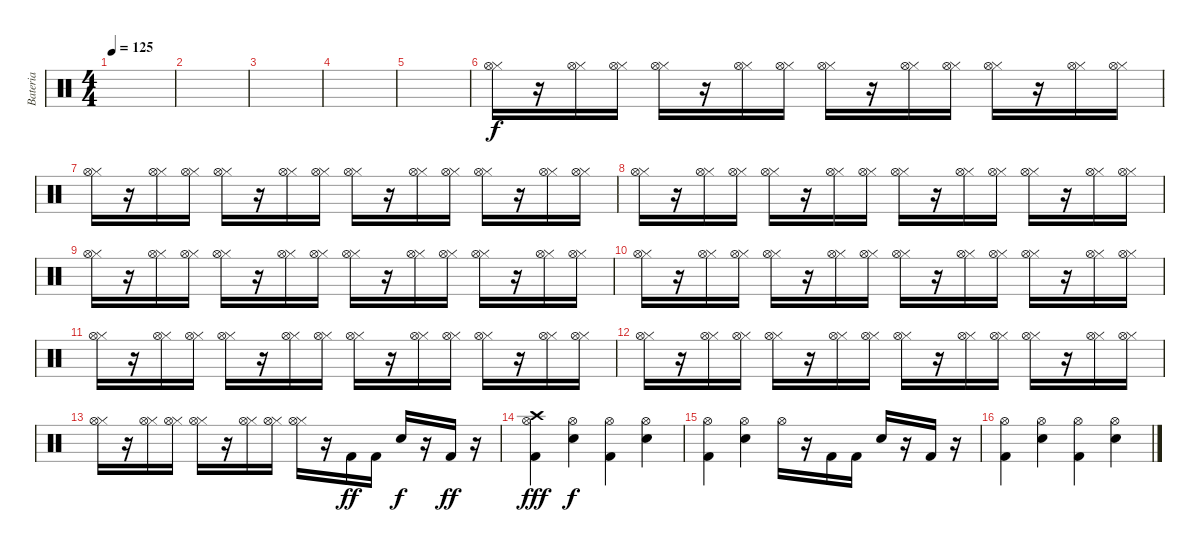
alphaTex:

\track ("Bateria" "Bateria") {instrument percussion}
\staff {score}
\articulation defaults
\ts (4 4)
\tempo 125
\clef neutral
\ks c
|
|
|
|
|
("Hi-Hat (closed)" "Hi-Hat (open)").16 r.16 ("Hi-Hat (closed)" "Hi-Hat (open)").16 ("Hi-Hat (closed)" "Hi-Hat (open)").16 ("Hi-Hat (closed)" "Hi-Hat (open)").16 r.16 ("Hi-Hat (closed)" "Hi-Hat (open)").16 ("Hi-Hat (closed)" "Hi-Hat (open)").16 ("Hi-Hat (closed)" "Hi-Hat (open)").16 r.16 ("Hi-Hat (closed)" "Hi-Hat (open)").16 ("Hi-Hat (closed)" "Hi-Hat (open)").16 ("Hi-Hat (closed)" "Hi-Hat (open)").16 r.16 ("Hi-Hat (closed)" "Hi-Hat (open)").16 ("Hi-Hat (closed)" "Hi-Hat (open)").16 |
("Hi-Hat (closed)" "Hi-Hat (open)").16 r.16 ("Hi-Hat (closed)" "Hi-Hat (open)").16 ("Hi-Hat (closed)" "Hi-Hat (open)").16 ("Hi-Hat (closed)" "Hi-Hat (open)").16 r.16 ("Hi-Hat (closed)" "Hi-Hat (open)").16 ("Hi-Hat (closed)" "Hi-Hat (open)").16 ("Hi-Hat (closed)" "Hi-Hat (open)").16 r.16 ("Hi-Hat (closed)" "Hi-Hat (open)").16 ("Hi-Hat (closed)" "Hi-Hat (open)").16 ("Hi-Hat (closed)" "Hi-Hat (open)").16 r.16 ("Hi-Hat (closed)" "Hi-Hat (open)").16 ("Hi-Hat (closed)" "Hi-Hat (open)").16 |
("Hi-Hat (closed)" "Hi-Hat (open)").16 r.16 ("Hi-Hat (closed)" "Hi-Hat (open)").16 ("Hi-Hat (closed)" "Hi-Hat (open)").16 ("Hi-Hat (closed)" "Hi-Hat (open)").16 r.16 ("Hi-Hat (closed)" "Hi-Hat (open)").16 ("Hi-Hat (closed)" "Hi-Hat (open)").16 ("Hi-Hat (closed)" "Hi-Hat (open)").16 r.16 ("Hi-Hat (closed)" "Hi-Hat (open)").16 ("Hi-Hat (closed)" "Hi-Hat (open)").16 ("Hi-Hat (closed)" "Hi-Hat (open)").16 r.16 ("Hi-Hat (closed)" "Hi-Hat (open)").16 ("Hi-Hat (closed)" "Hi-Hat (open)").16 |
("Hi-Hat (closed)" "Hi-Hat (open)").16 r.16 ("Hi-Hat (closed)" "Hi-Hat (open)").16 ("Hi-Hat (closed)" "Hi-Hat (open)").16 ("Hi-Hat (closed)" "Hi-Hat (open)").16 r.16 ("Hi-Hat (closed)" "Hi-Hat (open)").16 ("Hi-Hat (closed)" "Hi-Hat (open)").16 ("Hi-Hat (closed)" "Hi-Hat (open)").16 r.16 ("Hi-Hat (closed)" "Hi-Hat (open)").16 ("Hi-Hat (closed)" "Hi-Hat (open)").16 ("Hi-Hat (closed)" "Hi-Hat (open)").16 r.16 ("Hi-Hat (closed)" "Hi-Hat (open)").16 ("Hi-Hat (closed)" "Hi-Hat (open)").16 |
("Hi-Hat (closed)" "Hi-Hat (open)").16 r.16 ("Hi-Hat (closed)" "Hi-Hat (open)").16 ("Hi-Hat (closed)" "Hi-Hat (open)").16 ("Hi-Hat (closed)" "Hi-Hat (open)").16 r.16 ("Hi-Hat (closed)" "Hi-Hat (open)").16 ("Hi-Hat (closed)" "Hi-Hat (open)").16 ("Hi-Hat (closed)" "Hi-Hat (open)").16 r.16 ("Hi-Hat (closed)" "Hi-Hat (open)").16 ("Hi-Hat (closed)" "Hi-Hat (open)").16 ("Hi-Hat (closed)" "Hi-Hat (open)").16 r.16 ("Hi-Hat (closed)" "Hi-Hat (open)").16 ("Hi-Hat (closed)" "Hi-Hat (open)").16 |
("Hi-Hat (closed)" "Hi-Hat (open)").16 r.16 ("Hi-Hat (closed)" "Hi-Hat (open)").16 ("Hi-Hat (closed)" "Hi-Hat (open)").16 ("Hi-Hat (closed)" "Hi-Hat (open)").16 r.16 ("Hi-Hat (closed)" "Hi-Hat (open)").16 ("Hi-Hat (closed)" "Hi-Hat (open)").16 ("Hi-Hat (closed)" "Hi-Hat (open)").16 r.16 ("Hi-Hat (closed)" "Hi-Hat (open)").16 ("Hi-Hat (closed)" "Hi-Hat (open)").16 ("Hi-Hat (closed)" "Hi-Hat (open)").16 r.16 ("Hi-Hat (closed)" "Hi-Hat (open)").16 ("Hi-Hat (closed)" "Hi-Hat (open)").16 |
("Hi-Hat (closed)" "Hi-Hat (open)").16 r.16 ("Hi-Hat (closed)" "Hi-Hat (open)").16 ("Hi-Hat (closed)" "Hi-Hat (open)").16 ("Hi-Hat (closed)" "Hi-Hat (open)").16 r.16 ("Hi-Hat (closed)" "Hi-Hat (open)").16 ("Hi-Hat (closed)" "Hi-Hat (open)").16 ("Hi-Hat (closed)" "Hi-Hat (open)").16 r.16 ("Hi-Hat (closed)" "Hi-Hat (open)").16 ("Hi-Hat (closed)" "Hi-Hat (open)").16 ("Hi-Hat (closed)" "Hi-Hat (open)").16 r.16 ("Hi-Hat (closed)" "Hi-Hat (open)").16 ("Hi-Hat (closed)" "Hi-Hat (open)").16 |
("Hi-Hat (closed)" "Hi-Hat (open)").16 r.16 ("Hi-Hat (closed)" "Hi-Hat (open)").16 ("Hi-Hat (closed)" "Hi-Hat (open)").16 ("Hi-Hat (closed)" "Hi-Hat (open)").16 r.16 ("Hi-Hat (closed)" "Hi-Hat (open)").16 ("Hi-Hat (closed)" "Hi-Hat (open)").16 ("Hi-Hat (closed)" "Hi-Hat (open)").16 r.16 "Kick (hit) 2".16{dy ff} "Kick (hit) 2".16 "Snare (hit) 2".16{dy f} r.16 "Kick (hit) 2".16{dy ff} r.16 |
("Hi-Hat (open)" "Kick (hit) 2" "Crash high (hit)").4{dy fff} ("Hi-Hat (open)" "Snare (hit) 2").4{dy f} ("Hi-Hat (open)" "Kick (hit) 2").4 ("Hi-Hat (open)" "Snare (hit) 2").4 |
("Hi-Hat (open)" "Kick (hit) 2").4 ("Hi-Hat (open)" "Snare (hit) 2").4 "Hi-Hat (open)".16 r.16 "Kick (hit) 2".16 "Kick (hit) 2".16 "Snare (hit) 2".16 r.16 "Kick (hit) 2".16 r.16 |
("Hi-Hat (open)" "Kick (hit) 2").4 ("Hi-Hat (open)" "Snare (hit) 2").4 ("Hi-Hat (open)" "Kick (hit) 2").4 ("Hi-Hat (open)" "Snare (hit) 2").4
